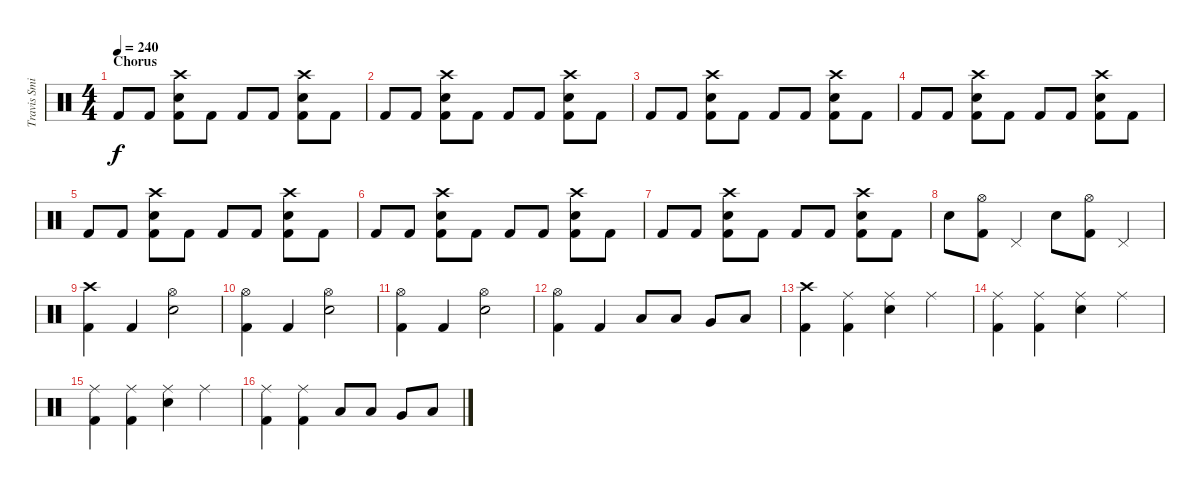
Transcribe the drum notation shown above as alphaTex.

\track ("Travis Smith (Drums)" "Travis Smi") {instrument percussion}
\staff {score}
\articulation defaults
\ts (4 4)
\section ("" "Chorus")
\tempo 240
\clef neutral
\ks c "Kick (hit) 2".8{dy f} "Kick (hit) 2".8
("Kick (hit) 2" "Snare (hit) 2" "Crash high (hit)").8 "Kick (hit) 2".8 "Kick (hit) 2".8 "Kick (hit) 2".8 ("Kick (hit) 2" "Snare (hit) 2" "Crash high (hit)").8 "Kick (hit) 2".8 |
"Kick (hit) 2".8 "Kick (hit) 2".8 ("Kick (hit) 2" "Snare (hit) 2" "Crash high (hit)").8 "Kick (hit) 2".8 "Kick (hit) 2".8 "Kick (hit) 2".8 ("Kick (hit) 2" "Snare (hit) 2" "Crash high (hit)").8 "Kick (hit) 2".8 |
"Kick (hit) 2".8 "Kick (hit) 2".8 ("Kick (hit) 2" "Snare (hit) 2" "Crash high (hit)").8 "Kick (hit) 2".8 "Kick (hit) 2".8 "Kick (hit) 2".8 ("Kick (hit) 2" "Snare (hit) 2" "Crash high (hit)").8 "Kick (hit) 2".8 |
"Kick (hit) 2".8 "Kick (hit) 2".8 ("Kick (hit) 2" "Snare (hit) 2" "Crash high (hit)").8 "Kick (hit) 2".8 "Kick (hit) 2".8 "Kick (hit) 2".8 ("Kick (hit) 2" "Snare (hit) 2" "Crash high (hit)").8 "Kick (hit) 2".8 |
"Kick (hit) 2".8 "Kick (hit) 2".8 ("Kick (hit) 2" "Snare (hit) 2" "Crash high (hit)").8 "Kick (hit) 2".8 "Kick (hit) 2".8 "Kick (hit) 2".8 ("Kick (hit) 2" "Snare (hit) 2" "Crash high (hit)").8 "Kick (hit) 2".8 |
"Kick (hit) 2".8 "Kick (hit) 2".8 ("Kick (hit) 2" "Snare (hit) 2" "Crash high (hit)").8 "Kick (hit) 2".8 "Kick (hit) 2".8 "Kick (hit) 2".8 ("Kick (hit) 2" "Snare (hit) 2" "Crash high (hit)").8 "Kick (hit) 2".8 |
"Kick (hit) 2".8 "Kick (hit) 2".8 ("Kick (hit) 2" "Snare (hit) 2" "Crash high (hit)").8 "Kick (hit) 2".8 "Kick (hit) 2".8 "Kick (hit) 2".8 ("Kick (hit) 2" "Snare (hit) 2" "Crash high (hit)").8 "Kick (hit) 2".8 |
"Snare (hit) 2".8 ("Kick (hit) 2" "Hi-Hat (open)").8 "Pedal Hi-Hat (hit)".4 "Snare (hit) 2".8 ("Kick (hit) 2" "Hi-Hat (open)").8 "Pedal Hi-Hat (hit)".4 |
("Kick (hit) 2" "Crash high (hit)").4 "Kick (hit) 2".4 ("Snare (hit) 2" "Hi-Hat (open)").2 |
("Kick (hit) 2" "Hi-Hat (open)").4 "Kick (hit) 2".4 ("Snare (hit) 2" "Hi-Hat (open)").2 |
("Kick (hit) 2" "Hi-Hat (open)").4 "Kick (hit) 2".4 ("Snare (hit) 2" "Hi-Hat (open)").2 |
("Kick (hit) 2" "Hi-Hat (open)").4 "Kick (hit) 2".4 "Low Tom (hit)".8 "Low Tom (hit)".8 "Very Low Tom (hit)".8 "Low Floor Tom (hit)".8 |
("Kick (hit) 2" "Crash high (hit)").4 ("Kick (hit) 2" "Ride (middle)").4 ("Snare (hit) 2" "Ride (middle)").4 "Ride (middle)".4 |
("Kick (hit) 2" "Ride (middle)").4 ("Kick (hit) 2" "Ride (middle)").4 ("Snare (hit) 2" "Ride (middle)").4 "Ride (middle)".4 |
("Kick (hit) 2" "Ride (middle)").4 ("Kick (hit) 2" "Ride (middle)").4 ("Snare (hit) 2" "Ride (middle)").4 "Ride (middle)".4 |
("Kick (hit) 2" "Ride (middle)").4 ("Kick (hit) 2" "Ride (middle)").4 "Low Tom (hit)".8 "Low Tom (hit)".8 "Very Low Tom (hit)".8 "Low Floor Tom (hit)".8
